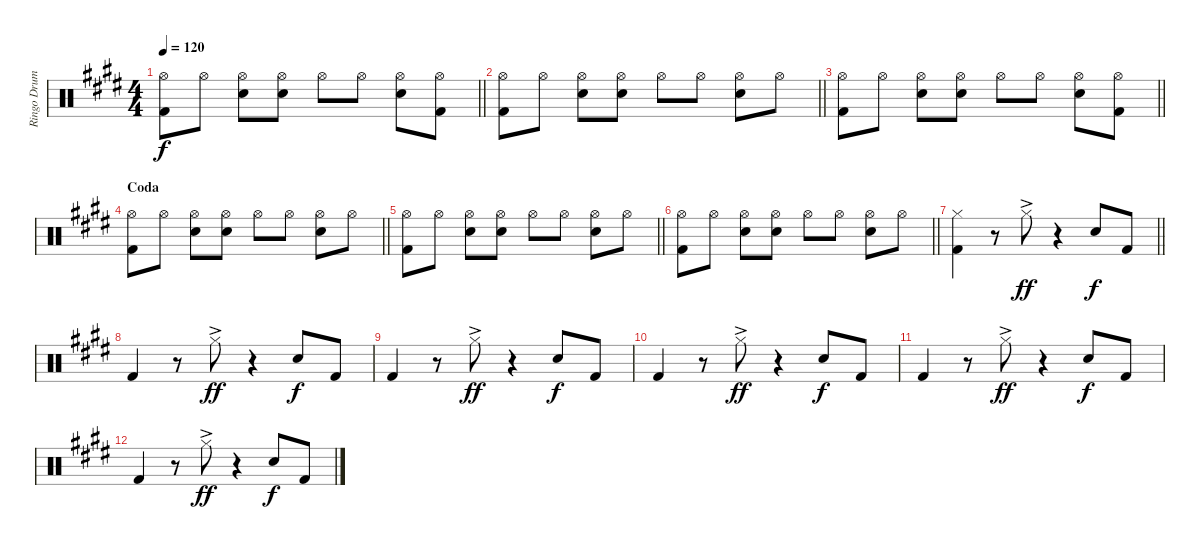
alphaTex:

\track ("Ringo Drums" "Ringo Drum") {instrument percussion}
\staff {score}
\articulation defaults
\ts (4 4)
\tempo 120
\clef neutral
\barLineRight lightlight
\ks e
("Hi-Hat (open)" "Kick (hit) 2").8{dy f} "Hi-Hat (open)".8 ("Hi-Hat (open)" "Snare (hit) 2").8 ("Hi-Hat (open)" "Snare (hit) 2").8 "Hi-Hat (open)".8 "Hi-Hat (open)".8 ("Hi-Hat (open)" "Snare (hit) 2").8 ("Hi-Hat (open)" "Kick (hit) 2").8 |
\barLineRight lightlight
("Hi-Hat (open)" "Kick (hit) 2").8 "Hi-Hat (open)".8 ("Hi-Hat (open)" "Snare (hit) 2").8 ("Hi-Hat (open)" "Snare (hit) 2").8 "Hi-Hat (open)".8 "Hi-Hat (open)".8 ("Hi-Hat (open)" "Snare (hit) 2").8 "Hi-Hat (open)".8 |
\barLineRight lightlight
("Hi-Hat (open)" "Kick (hit) 2").8 "Hi-Hat (open)".8 ("Hi-Hat (open)" "Snare (hit) 2").8 ("Hi-Hat (open)" "Snare (hit) 2").8 "Hi-Hat (open)".8 "Hi-Hat (open)".8 ("Hi-Hat (open)" "Snare (hit) 2").8 ("Hi-Hat (open)" "Kick (hit) 2").8 |
\section ("" "Coda")
\barLineRight lightlight
("Hi-Hat (open)" "Kick (hit) 2").8 "Hi-Hat (open)".8 ("Hi-Hat (open)" "Snare (hit) 2").8 ("Hi-Hat (open)" "Snare (hit) 2").8 "Hi-Hat (open)".8 "Hi-Hat (open)".8 ("Hi-Hat (open)" "Snare (hit) 2").8 "Hi-Hat (open)".8 |
\barLineRight lightlight
("Hi-Hat (open)" "Kick (hit) 2").8 "Hi-Hat (open)".8 ("Hi-Hat (open)" "Snare (hit) 2").8 ("Hi-Hat (open)" "Snare (hit) 2").8 "Hi-Hat (open)".8 "Hi-Hat (open)".8 ("Hi-Hat (open)" "Snare (hit) 2").8 "Hi-Hat (open)".8 |
\barLineRight lightlight
("Hi-Hat (open)" "Kick (hit) 2").8 "Hi-Hat (open)".8 ("Hi-Hat (open)" "Snare (hit) 2").8 ("Hi-Hat (open)" "Snare (hit) 2").8 "Hi-Hat (open)".8 "Hi-Hat (open)".8 ("Hi-Hat (open)" "Snare (hit) 2").8 "Hi-Hat (open)".8 |
\barLineRight lightlight
("Hi-Hat (closed)" "Kick (hit) 2").4 r.8 "Hi-Hat (closed)"{ac}.8{dy ff} r.4 "Snare (hit) 2".8{dy f} "Kick (hit) 2".8 |
"Kick (hit) 2".4 r.8 "Hi-Hat (closed)"{ac}.8{dy ff} r.4 "Snare (hit) 2".8{dy f} "Kick (hit) 2".8 |
"Kick (hit) 2".4 r.8 "Hi-Hat (closed)"{ac}.8{dy ff} r.4 "Snare (hit) 2".8{dy f} "Kick (hit) 2".8 |
"Kick (hit) 2".4 r.8 "Hi-Hat (closed)"{ac}.8{dy ff} r.4 "Snare (hit) 2".8{dy f} "Kick (hit) 2".8 |
"Kick (hit) 2".4 r.8 "Hi-Hat (closed)"{ac}.8{dy ff} r.4 "Snare (hit) 2".8{dy f} "Kick (hit) 2".8 |
"Kick (hit) 2".4 r.8 "Hi-Hat (closed)"{ac}.8{dy ff} r.4 "Snare (hit) 2".8{dy f} "Kick (hit) 2".8
